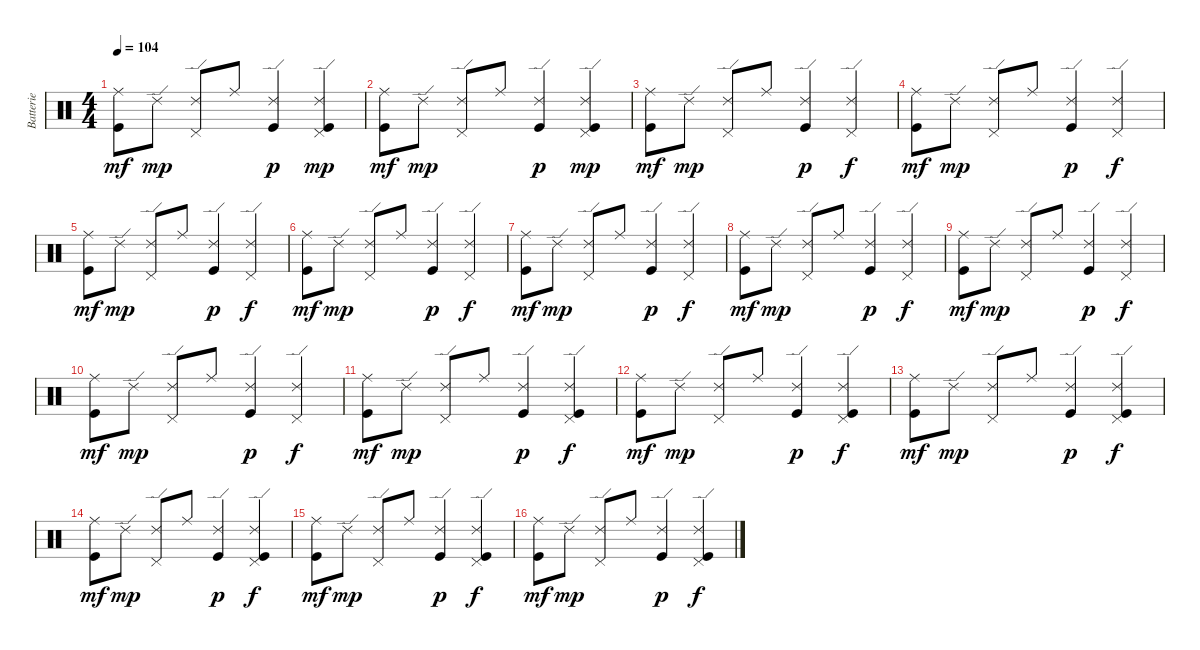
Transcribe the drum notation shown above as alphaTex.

\track ("Batterie" "Batterie") {instrument percussion}
\staff {score}
\articulation defaults
\ts (4 4)
\tempo 104
\clef neutral
\ks c
("Ride (middle)" "Kick (hit)").8{dy mf} "Ride (edge) 2".8{dy mp} ("Pedal Hi-Hat (hit)" "Ride (edge) 2").8 "Ride (middle)".8 ("Kick (hit)" "Ride (edge) 2").4{dy p} ("Pedal Hi-Hat (hit)" "Kick (hit)" "Ride (edge) 2").4{dy mp} |
("Ride (middle)" "Kick (hit)").8{dy mf} "Ride (edge) 2".8{dy mp} ("Pedal Hi-Hat (hit)" "Ride (edge) 2").8 "Ride (middle)".8 ("Kick (hit)" "Ride (edge) 2").4{dy p} ("Pedal Hi-Hat (hit)" "Kick (hit)" "Ride (edge) 2").4{dy mp} |
("Ride (middle)" "Kick (hit)").8{dy mf} "Ride (edge) 2".8{dy mp} ("Pedal Hi-Hat (hit)" "Ride (edge) 2").8 "Ride (middle)".8 ("Kick (hit)" "Ride (edge) 2").4{dy p} ("Pedal Hi-Hat (hit)" "Ride (edge) 2").4{dy f} |
("Ride (middle)" "Kick (hit)").8{dy mf} "Ride (edge) 2".8{dy mp} ("Pedal Hi-Hat (hit)" "Ride (edge) 2").8 "Ride (middle)".8 ("Kick (hit)" "Ride (edge) 2").4{dy p} ("Pedal Hi-Hat (hit)" "Ride (edge) 2").4{dy f} |
("Ride (middle)" "Kick (hit)").8{dy mf} "Ride (edge) 2".8{dy mp} ("Pedal Hi-Hat (hit)" "Ride (edge) 2").8 "Ride (middle)".8 ("Kick (hit)" "Ride (edge) 2").4{dy p} ("Pedal Hi-Hat (hit)" "Ride (edge) 2").4{dy f} |
("Ride (middle)" "Kick (hit)").8{dy mf} "Ride (edge) 2".8{dy mp} ("Pedal Hi-Hat (hit)" "Ride (edge) 2").8 "Ride (middle)".8 ("Kick (hit)" "Ride (edge) 2").4{dy p} ("Pedal Hi-Hat (hit)" "Ride (edge) 2").4{dy f} |
("Ride (middle)" "Kick (hit)").8{dy mf} "Ride (edge) 2".8{dy mp} ("Pedal Hi-Hat (hit)" "Ride (edge) 2").8 "Ride (middle)".8 ("Kick (hit)" "Ride (edge) 2").4{dy p} ("Pedal Hi-Hat (hit)" "Ride (edge) 2").4{dy f} |
("Ride (middle)" "Kick (hit)").8{dy mf} "Ride (edge) 2".8{dy mp} ("Pedal Hi-Hat (hit)" "Ride (edge) 2").8 "Ride (middle)".8 ("Kick (hit)" "Ride (edge) 2").4{dy p} ("Pedal Hi-Hat (hit)" "Ride (edge) 2").4{dy f} |
("Ride (middle)" "Kick (hit)").8{dy mf} "Ride (edge) 2".8{dy mp} ("Pedal Hi-Hat (hit)" "Ride (edge) 2").8 "Ride (middle)".8 ("Kick (hit)" "Ride (edge) 2").4{dy p} ("Pedal Hi-Hat (hit)" "Ride (edge) 2").4{dy f} |
("Ride (middle)" "Kick (hit)").8{dy mf} "Ride (edge) 2".8{dy mp} ("Pedal Hi-Hat (hit)" "Ride (edge) 2").8 "Ride (middle)".8 ("Kick (hit)" "Ride (edge) 2").4{dy p} ("Pedal Hi-Hat (hit)" "Ride (edge) 2").4{dy f} |
("Ride (middle)" "Kick (hit)").8{dy mf} "Ride (edge) 2".8{dy mp} ("Pedal Hi-Hat (hit)" "Ride (edge) 2").8 "Ride (middle)".8 ("Kick (hit)" "Ride (edge) 2").4{dy p} ("Pedal Hi-Hat (hit)" "Ride (edge) 2" "Kick (hit)").4{dy f} |
("Ride (middle)" "Kick (hit)").8{dy mf} "Ride (edge) 2".8{dy mp} ("Pedal Hi-Hat (hit)" "Ride (edge) 2").8 "Ride (middle)".8 ("Kick (hit)" "Ride (edge) 2").4{dy p} ("Pedal Hi-Hat (hit)" "Ride (edge) 2" "Kick (hit)").4{dy f} |
("Ride (middle)" "Kick (hit)").8{dy mf} "Ride (edge) 2".8{dy mp} ("Pedal Hi-Hat (hit)" "Ride (edge) 2").8 "Ride (middle)".8 ("Kick (hit)" "Ride (edge) 2").4{dy p} ("Pedal Hi-Hat (hit)" "Ride (edge) 2" "Kick (hit)").4{dy f} |
("Ride (middle)" "Kick (hit)").8{dy mf} "Ride (edge) 2".8{dy mp} ("Pedal Hi-Hat (hit)" "Ride (edge) 2").8 "Ride (middle)".8 ("Kick (hit)" "Ride (edge) 2").4{dy p} ("Pedal Hi-Hat (hit)" "Ride (edge) 2" "Kick (hit)").4{dy f} |
("Ride (middle)" "Kick (hit)").8{dy mf} "Ride (edge) 2".8{dy mp} ("Pedal Hi-Hat (hit)" "Ride (edge) 2").8 "Ride (middle)".8 ("Kick (hit)" "Ride (edge) 2").4{dy p} ("Pedal Hi-Hat (hit)" "Ride (edge) 2" "Kick (hit)").4{dy f} |
("Ride (middle)" "Kick (hit)").8{dy mf} "Ride (edge) 2".8{dy mp} ("Pedal Hi-Hat (hit)" "Ride (edge) 2").8 "Ride (middle)".8 ("Kick (hit)" "Ride (edge) 2").4{dy p} ("Pedal Hi-Hat (hit)" "Ride (edge) 2" "Kick (hit)").4{dy f}
